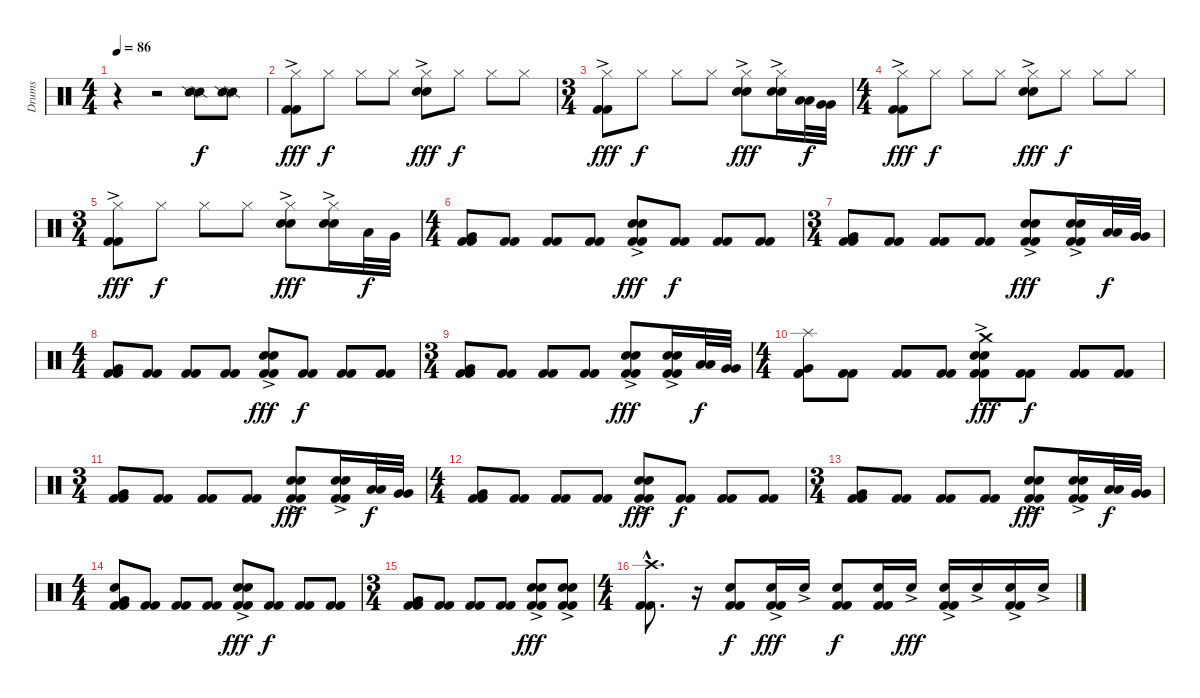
\track ("Drums" "Drums") {instrument percussion}
\staff {score}
\articulation defaults
\ts (4 4)
\tempo 86
\clef neutral
\ks c
r.4{dy f} r.2 ("Snare (side stick) 2" "Snare (side stick) 2").8 ("Snare (side stick) 2" "Snare (side stick) 2").8 |
("Hi-Hat (closed)" "Kick (hit) 2"{ac} "Kick (hit) 2"{ac}).8{dy fff} "Hi-Hat (closed)".8{dy f} "Hi-Hat (closed)".8 "Hi-Hat (closed)".8 ("Hi-Hat (closed)" "Electric Snare (hit)"{ac} "Electric Snare (hit)").8{dy fff} "Hi-Hat (closed)".8{dy f} "Hi-Hat (closed)".8 "Hi-Hat (closed)".8 |
\ts (3 4)
("Hi-Hat (closed)" "Kick (hit) 2"{ac} "Kick (hit) 2"{ac}).8{dy fff} "Hi-Hat (closed)".8{dy f} "Hi-Hat (closed)".8 "Hi-Hat (closed)".8 ("Hi-Hat (closed)" "Electric Snare (hit)"{ac} "Electric Snare (hit)").8{dy fff} ("Hi-Hat (closed)" "Electric Snare (hit)"{ac} "Electric Snare (hit)").16 ("Low Tom (hit)" "Low Tom (hit)").32{dy f} ("Very Low Tom (hit)" "Very Low Tom (hit)").32 |
\ts (4 4)
("Hi-Hat (closed)" "Kick (hit) 2"{ac} "Kick (hit) 2"{ac}).8{dy fff} "Hi-Hat (closed)".8{dy f} "Hi-Hat (closed)".8 "Hi-Hat (closed)".8 ("Hi-Hat (closed)"{ac} "Electric Snare (hit)"{ac} "Electric Snare (hit)").8{dy fff} "Hi-Hat (closed)".8{dy f} "Hi-Hat (closed)".8 "Hi-Hat (closed)".8 |
\ts (3 4)
("Hi-Hat (closed)" "Kick (hit) 2"{ac} "Kick (hit) 2"{ac}).8{dy fff} "Hi-Hat (closed)".8{dy f} "Hi-Hat (closed)".8 "Hi-Hat (closed)".8 ("Hi-Hat (closed)"{ac} "Electric Snare (hit)"{ac} "Electric Snare (hit)").8{dy fff} ("Hi-Hat (closed)"{ac} "Electric Snare (hit)"{ac} "Electric Snare (hit)").16 "Low Tom (hit)".32{dy f} "Very Low Tom (hit)".32 |
\ts (4 4)
("Very Low Tom (hit)" "Kick (hit) 2" "Kick (hit) 2").8 ("Kick (hit) 2" "Kick (hit) 2").8 ("Kick (hit) 2" "Kick (hit) 2").8 ("Kick (hit) 2" "Kick (hit) 2").8 ("Electric Snare (hit)"{ac} "Electric Snare (hit)"{ac} "Kick (hit) 2" "Kick (hit) 2").8{dy fff} ("Kick (hit) 2" "Kick (hit) 2").8{dy f} ("Kick (hit) 2" "Kick (hit) 2").8 ("Kick (hit) 2" "Kick (hit) 2").8 |
\ts (3 4)
("Very Low Tom (hit)" "Kick (hit) 2" "Kick (hit) 2").8 ("Kick (hit) 2" "Kick (hit) 2").8 ("Kick (hit) 2" "Kick (hit) 2").8 ("Kick (hit) 2" "Kick (hit) 2").8 ("Electric Snare (hit)"{ac} "Electric Snare (hit)"{ac} "Kick (hit) 2" "Kick (hit) 2").8{dy fff} ("Electric Snare (hit)"{ac} "Electric Snare (hit)"{ac} "Kick (hit) 2" "Kick (hit) 2").16 ("Low Tom (hit)" "Low Tom (hit)").32{dy f} ("Very Low Tom (hit)" "Very Low Tom (hit)").32 |
\ts (4 4)
("Very Low Tom (hit)" "Kick (hit) 2" "Kick (hit) 2").8 ("Kick (hit) 2" "Kick (hit) 2").8 ("Kick (hit) 2" "Kick (hit) 2").8 ("Kick (hit) 2" "Kick (hit) 2").8 ("Electric Snare (hit)"{ac} "Electric Snare (hit)"{ac} "Kick (hit) 2" "Kick (hit) 2").8{dy fff} ("Kick (hit) 2" "Kick (hit) 2").8{dy f} ("Kick (hit) 2" "Kick (hit) 2").8 ("Kick (hit) 2" "Kick (hit) 2").8 |
\ts (3 4)
("Very Low Tom (hit)" "Kick (hit) 2" "Kick (hit) 2").8 ("Kick (hit) 2" "Kick (hit) 2").8 ("Kick (hit) 2" "Kick (hit) 2").8 ("Kick (hit) 2" "Kick (hit) 2").8 ("Electric Snare (hit)"{ac} "Electric Snare (hit)"{ac} "Kick (hit) 2" "Kick (hit) 2").8{dy fff} ("Electric Snare (hit)"{ac} "Electric Snare (hit)"{ac} "Kick (hit) 2" "Kick (hit) 2").16 ("Low Tom (hit)" "Low Tom (hit)").32{dy f} ("Very Low Tom (hit)" "Very Low Tom (hit)").32 |
\ts (4 4)
("Splash (hit)" "Very Low Tom (hit)" "Kick (hit) 2" "Kick (hit) 2").8 ("Kick (hit) 2" "Kick (hit) 2").8 ("Kick (hit) 2" "Kick (hit) 2").8 ("Kick (hit) 2" "Kick (hit) 2").8 ("Crash medium (hit)" "Electric Snare (hit)"{ac} "Electric Snare (hit)"{ac} "Kick (hit) 2" "Kick (hit) 2").8{dy fff} ("Kick (hit) 2" "Kick (hit) 2").8{dy f} ("Kick (hit) 2" "Kick (hit) 2").8 ("Kick (hit) 2" "Kick (hit) 2").8 |
\ts (3 4)
("Very Low Tom (hit)" "Kick (hit) 2" "Kick (hit) 2").8 ("Kick (hit) 2" "Kick (hit) 2").8 ("Kick (hit) 2" "Kick (hit) 2").8 ("Kick (hit) 2" "Kick (hit) 2").8 ("Electric Snare (hit)"{ac} "Electric Snare (hit)"{ac} "Kick (hit) 2" "Kick (hit) 2").8{dy fff} ("Electric Snare (hit)"{ac} "Electric Snare (hit)"{ac} "Kick (hit) 2" "Kick (hit) 2").16 ("Low Tom (hit)" "Low Tom (hit)").32{dy f} ("Very Low Tom (hit)" "Very Low Tom (hit)").32 |
\ts (4 4)
("Very Low Tom (hit)" "Kick (hit) 2" "Kick (hit) 2").8 ("Kick (hit) 2" "Kick (hit) 2").8 ("Kick (hit) 2" "Kick (hit) 2").8 ("Kick (hit) 2" "Kick (hit) 2").8 ("Electric Snare (hit)"{ac} "Electric Snare (hit)"{ac} "Kick (hit) 2" "Kick (hit) 2").8{dy fff} ("Kick (hit) 2" "Kick (hit) 2").8{dy f} ("Kick (hit) 2" "Kick (hit) 2").8 ("Kick (hit) 2" "Kick (hit) 2").8 |
\ts (3 4)
("Very Low Tom (hit)" "Kick (hit) 2" "Kick (hit) 2").8 ("Kick (hit) 2" "Kick (hit) 2").8 ("Kick (hit) 2" "Kick (hit) 2").8 ("Kick (hit) 2" "Kick (hit) 2").8 ("Electric Snare (hit)"{ac} "Electric Snare (hit)"{ac} "Kick (hit) 2" "Kick (hit) 2").8{dy fff} ("Electric Snare (hit)"{ac} "Electric Snare (hit)"{ac} "Kick (hit) 2" "Kick (hit) 2").16 ("Low Tom (hit)" "Low Tom (hit)").32{dy f} ("Very Low Tom (hit)" "Very Low Tom (hit)").32 |
\ts (4 4)
("Metronome (bell)" "Very Low Tom (hit)" "Kick (hit) 2" "Kick (hit) 2").8 ("Kick (hit) 2" "Kick (hit) 2").8 ("Kick (hit) 2" "Kick (hit) 2").8 ("Kick (hit) 2" "Kick (hit) 2").8 ("Electric Snare (hit)"{ac} "Electric Snare (hit)"{ac} "Kick (hit) 2" "Kick (hit) 2").8{dy fff} ("Kick (hit) 2" "Kick (hit) 2").8{dy f} ("Kick (hit) 2" "Kick (hit) 2").8 ("Kick (hit) 2" "Kick (hit) 2").8 |
\ts (3 4)
("Very Low Tom (hit)" "Kick (hit) 2" "Kick (hit) 2").8 ("Kick (hit) 2" "Kick (hit) 2").8 ("Kick (hit) 2" "Kick (hit) 2").8 ("Kick (hit) 2" "Kick (hit) 2").8 ("Electric Snare (hit)"{ac} "Electric Snare (hit)"{ac} "Kick (hit) 2" "Kick (hit) 2").8{dy fff} ("Electric Snare (hit)"{ac} "Electric Snare (hit)"{ac} "Kick (hit) 2" "Kick (hit) 2").8 |
\ts (4 4)
("Crash high (hit)"{hac} "Kick (hit) 2"{hac} "Kick (hit) 2"{hac}).8{d} r.16 ("Electric Snare (hit)" "Kick (hit) 2" "Kick (hit) 2").8{dy f} ("Electric Snare (hit)"{ac} "Kick (hit) 2" "Kick (hit) 2").16{dy fff} "Electric Snare (hit)"{ac}.16 ("Electric Snare (hit)" "Kick (hit) 2" "Kick (hit) 2").8{dy f} ("Electric Snare (hit)" "Kick (hit) 2" "Kick (hit) 2").16 "Electric Snare (hit)"{ac}.16{dy fff} ("Electric Snare (hit)"{ac} "Kick (hit) 2" "Kick (hit) 2").16 "Electric Snare (hit)"{ac}.16 ("Electric Snare (hit)"{ac} "Kick (hit) 2" "Kick (hit) 2").16 "Electric Snare (hit)"{ac}.16
